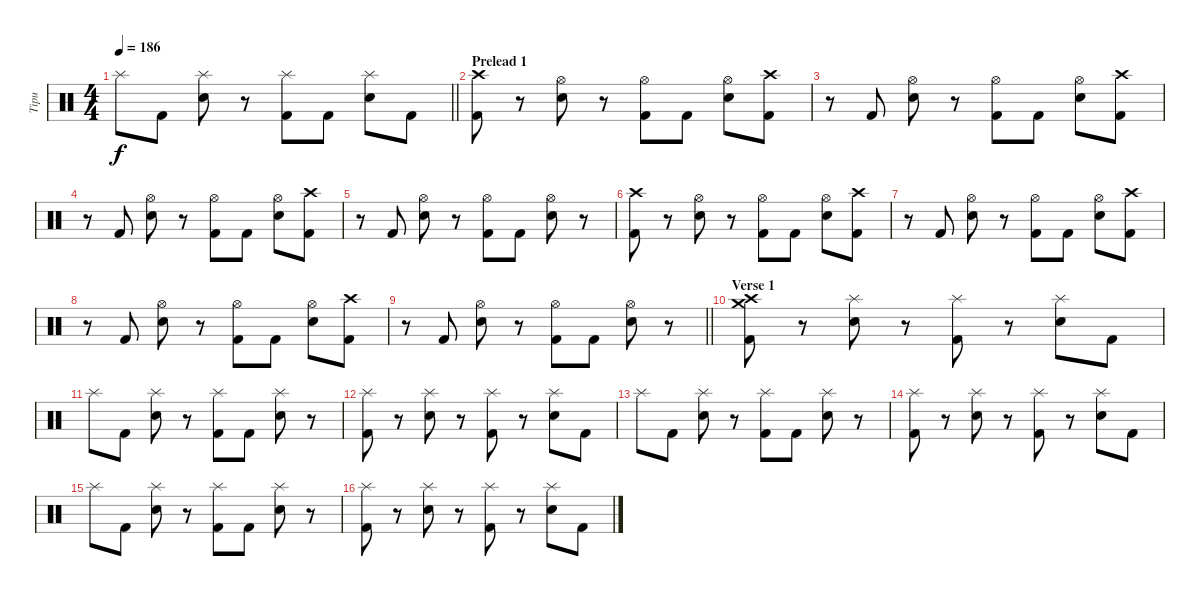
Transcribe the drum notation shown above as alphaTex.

\track ("Tipu" "Tipu") {instrument percussion}
\staff {score}
\articulation defaults
\ts (4 4)
\tempo 186
\clef neutral
\barLineRight lightlight
\ks c "Splash (hit)".8{dy f} "Kick (hit) 2".8
("Splash (hit)" "Electric Snare (hit)").8 r.8 ("Splash (hit)" "Kick (hit) 2").8 "Kick (hit) 2".8 ("Splash (hit)" "Electric Snare (hit)").8 "Kick (hit) 2".8 |
\section ("" "Prelead 1")
("Crash high (hit)" "Kick (hit) 2").8 r.8 ("Hi-Hat (open)" "Electric Snare (hit)").8 r.8 ("Hi-Hat (open)" "Kick (hit) 2").8 "Kick (hit) 2".8 ("Hi-Hat (open)" "Electric Snare (hit)").8 ("Crash high (hit)" "Kick (hit) 2").8 |
r.8 "Kick (hit) 2".8 ("Hi-Hat (open)" "Electric Snare (hit)").8 r.8 ("Hi-Hat (open)" "Kick (hit) 2").8 "Kick (hit) 2".8 ("Hi-Hat (open)" "Electric Snare (hit)").8 ("Crash high (hit)" "Kick (hit) 2").8 |
r.8 "Kick (hit) 2".8 ("Hi-Hat (open)" "Electric Snare (hit)").8 r.8 ("Hi-Hat (open)" "Kick (hit) 2").8 "Kick (hit) 2".8 ("Hi-Hat (open)" "Electric Snare (hit)").8 ("Crash high (hit)" "Kick (hit) 2").8 |
r.8 "Kick (hit) 2".8 ("Hi-Hat (open)" "Electric Snare (hit)").8 r.8 ("Hi-Hat (open)" "Kick (hit) 2").8 "Kick (hit) 2".8 ("Hi-Hat (open)" "Electric Snare (hit)").8 r.8 |
("Crash high (hit)" "Kick (hit) 2").8 r.8 ("Hi-Hat (open)" "Electric Snare (hit)").8 r.8 ("Hi-Hat (open)" "Kick (hit) 2").8 "Kick (hit) 2".8 ("Hi-Hat (open)" "Electric Snare (hit)").8 ("Crash high (hit)" "Kick (hit) 2").8 |
r.8 "Kick (hit) 2".8 ("Hi-Hat (open)" "Electric Snare (hit)").8 r.8 ("Hi-Hat (open)" "Kick (hit) 2").8 "Kick (hit) 2".8 ("Hi-Hat (open)" "Electric Snare (hit)").8 ("Crash high (hit)" "Kick (hit) 2").8 |
r.8 "Kick (hit) 2".8 ("Hi-Hat (open)" "Electric Snare (hit)").8 r.8 ("Hi-Hat (open)" "Kick (hit) 2").8 "Kick (hit) 2".8 ("Hi-Hat (open)" "Electric Snare (hit)").8 ("Crash high (hit)" "Kick (hit) 2").8 |
\barLineRight lightlight
r.8 "Kick (hit) 2".8 ("Hi-Hat (open)" "Electric Snare (hit)").8 r.8 ("Hi-Hat (open)" "Kick (hit) 2").8 "Kick (hit) 2".8 ("Hi-Hat (open)" "Electric Snare (hit)").8 r.8 |
\section ("" "Verse 1")
("Crash high (hit)" "Crash medium (hit)" "Kick (hit) 2").8 r.8 ("Splash (hit)" "Electric Snare (hit)").8 r.8 ("Splash (hit)" "Kick (hit) 2").8 r.8 ("Splash (hit)" "Electric Snare (hit)").8 "Kick (hit) 2".8 |
"Splash (hit)".8 "Kick (hit) 2".8 ("Splash (hit)" "Electric Snare (hit)").8 r.8 ("Splash (hit)" "Kick (hit) 2").8 "Kick (hit) 2".8 ("Splash (hit)" "Electric Snare (hit)").8 r.8 |
("Splash (hit)" "Kick (hit) 2").8 r.8 ("Splash (hit)" "Electric Snare (hit)").8 r.8 ("Splash (hit)" "Kick (hit) 2").8 r.8 ("Splash (hit)" "Electric Snare (hit)").8 "Kick (hit) 2".8 |
"Splash (hit)".8 "Kick (hit) 2".8 ("Splash (hit)" "Electric Snare (hit)").8 r.8 ("Splash (hit)" "Kick (hit) 2").8 "Kick (hit) 2".8 ("Splash (hit)" "Electric Snare (hit)").8 r.8 |
("Splash (hit)" "Kick (hit) 2").8 r.8 ("Splash (hit)" "Electric Snare (hit)").8 r.8 ("Splash (hit)" "Kick (hit) 2").8 r.8 ("Splash (hit)" "Electric Snare (hit)").8 "Kick (hit) 2".8 |
"Splash (hit)".8 "Kick (hit) 2".8 ("Splash (hit)" "Electric Snare (hit)").8 r.8 ("Splash (hit)" "Kick (hit) 2").8 "Kick (hit) 2".8 ("Splash (hit)" "Electric Snare (hit)").8 r.8 |
("Splash (hit)" "Kick (hit) 2").8 r.8 ("Splash (hit)" "Electric Snare (hit)").8 r.8 ("Splash (hit)" "Kick (hit) 2").8 r.8 ("Splash (hit)" "Electric Snare (hit)").8 "Kick (hit) 2".8
